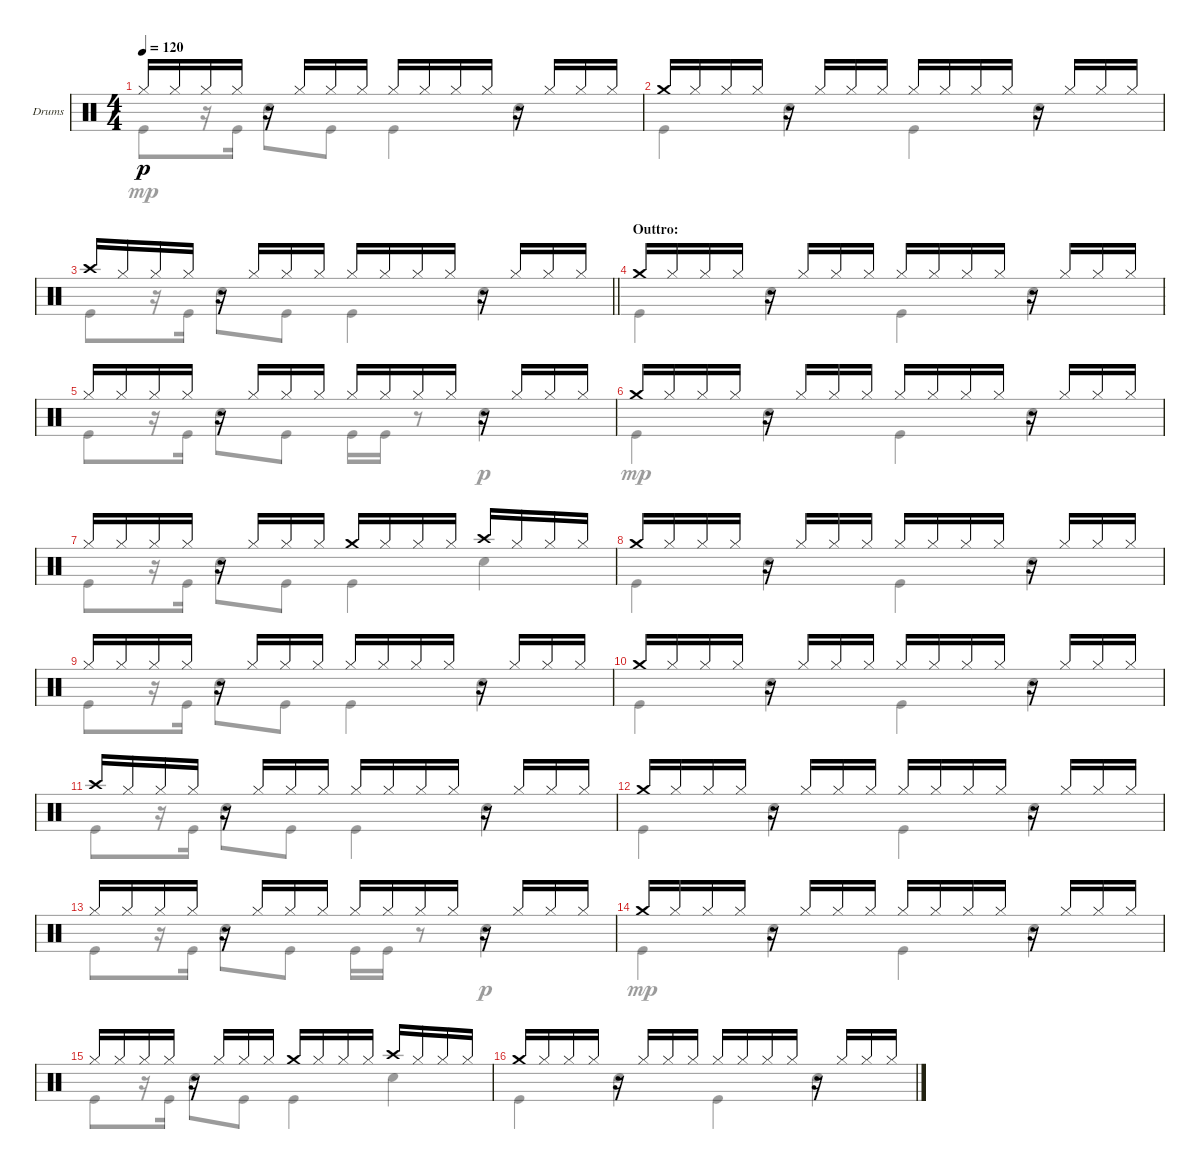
\bracketExtendMode groupsimilarinstruments
\firstSystemTrackNameOrientation horizontal
\otherSystemsTrackNameOrientation horizontal
\track ("Drumkit" "Drums") {instrument percussion}
\staff {score}
\articulation defaults
\voice
\ts (4 4)
\tempo 120
\clef neutral
\ks c "Hi-Hat (closed)".16{dy p} "Hi-Hat (closed)".16 "Hi-Hat (closed)".16 "Hi-Hat (closed)".16
r.16 "Hi-Hat (closed)".16 "Hi-Hat (closed)".16 "Hi-Hat (closed)".16 "Hi-Hat (closed)".16 "Hi-Hat (closed)".16 "Hi-Hat (closed)".16 "Hi-Hat (closed)".16 r.16 "Hi-Hat (closed)".16 "Hi-Hat (closed)".16 "Hi-Hat (closed)".16 |
"Crash medium (hit)".16 "Hi-Hat (closed)".16 "Hi-Hat (closed)".16 "Hi-Hat (closed)".16 r.16 "Hi-Hat (closed)".16 "Hi-Hat (closed)".16 "Hi-Hat (closed)".16 "Hi-Hat (closed)".16 "Hi-Hat (closed)".16 "Hi-Hat (closed)".16 "Hi-Hat (closed)".16 r.16 "Hi-Hat (closed)".16 "Hi-Hat (closed)".16 "Hi-Hat (closed)".16 |
\barLineRight lightlight "Crash high (hit)".16 "Hi-Hat (closed)".16 "Hi-Hat (closed)".16 "Hi-Hat (closed)".16
r.16 "Hi-Hat (closed)".16 "Hi-Hat (closed)".16 "Hi-Hat (closed)".16 "Hi-Hat (closed)".16 "Hi-Hat (closed)".16 "Hi-Hat (closed)".16 "Hi-Hat (closed)".16 r.16 "Hi-Hat (closed)".16 "Hi-Hat (closed)".16 "Hi-Hat (closed)".16 |
\section ("" "Outtro:")
"Crash medium (hit)".16 "Hi-Hat (closed)".16 "Hi-Hat (closed)".16 "Hi-Hat (closed)".16 r.16 "Hi-Hat (closed)".16 "Hi-Hat (closed)".16 "Hi-Hat (closed)".16 "Hi-Hat (closed)".16 "Hi-Hat (closed)".16 "Hi-Hat (closed)".16 "Hi-Hat (closed)".16 r.16 "Hi-Hat (closed)".16 "Hi-Hat (closed)".16 "Hi-Hat (closed)".16 |
"Hi-Hat (closed)".16 "Hi-Hat (closed)".16 "Hi-Hat (closed)".16 "Hi-Hat (closed)".16 r.16 "Hi-Hat (closed)".16 "Hi-Hat (closed)".16 "Hi-Hat (closed)".16 "Hi-Hat (closed)".16 "Hi-Hat (closed)".16 "Hi-Hat (closed)".16 "Hi-Hat (closed)".16 r.16 "Hi-Hat (closed)".16 "Hi-Hat (closed)".16 "Hi-Hat (closed)".16 |
"Crash medium (hit)".16 "Hi-Hat (closed)".16 "Hi-Hat (closed)".16 "Hi-Hat (closed)".16 r.16 "Hi-Hat (closed)".16 "Hi-Hat (closed)".16 "Hi-Hat (closed)".16 "Hi-Hat (closed)".16 "Hi-Hat (closed)".16 "Hi-Hat (closed)".16 "Hi-Hat (closed)".16 r.16 "Hi-Hat (closed)".16 "Hi-Hat (closed)".16 "Hi-Hat (closed)".16 |
"Hi-Hat (closed)".16 "Hi-Hat (closed)".16 "Hi-Hat (closed)".16 "Hi-Hat (closed)".16 r.16 "Hi-Hat (closed)".16 "Hi-Hat (closed)".16 "Hi-Hat (closed)".16 "Crash medium (hit)".16 "Hi-Hat (closed)".16 "Hi-Hat (closed)".16 "Hi-Hat (closed)".16 "Crash high (hit)".16 "Hi-Hat (closed)".16 "Hi-Hat (closed)".16 "Hi-Hat (closed)".16 |
"Crash medium (hit)".16 "Hi-Hat (closed)".16 "Hi-Hat (closed)".16 "Hi-Hat (closed)".16 r.16 "Hi-Hat (closed)".16 "Hi-Hat (closed)".16 "Hi-Hat (closed)".16 "Hi-Hat (closed)".16 "Hi-Hat (closed)".16 "Hi-Hat (closed)".16 "Hi-Hat (closed)".16 r.16 "Hi-Hat (closed)".16 "Hi-Hat (closed)".16 "Hi-Hat (closed)".16 |
"Hi-Hat (closed)".16 "Hi-Hat (closed)".16 "Hi-Hat (closed)".16 "Hi-Hat (closed)".16 r.16 "Hi-Hat (closed)".16 "Hi-Hat (closed)".16 "Hi-Hat (closed)".16 "Hi-Hat (closed)".16 "Hi-Hat (closed)".16 "Hi-Hat (closed)".16 "Hi-Hat (closed)".16 r.16 "Hi-Hat (closed)".16 "Hi-Hat (closed)".16 "Hi-Hat (closed)".16 |
"Crash medium (hit)".16 "Hi-Hat (closed)".16 "Hi-Hat (closed)".16 "Hi-Hat (closed)".16 r.16 "Hi-Hat (closed)".16 "Hi-Hat (closed)".16 "Hi-Hat (closed)".16 "Hi-Hat (closed)".16 "Hi-Hat (closed)".16 "Hi-Hat (closed)".16 "Hi-Hat (closed)".16 r.16 "Hi-Hat (closed)".16 "Hi-Hat (closed)".16 "Hi-Hat (closed)".16 |
"Crash high (hit)".16 "Hi-Hat (closed)".16 "Hi-Hat (closed)".16 "Hi-Hat (closed)".16 r.16 "Hi-Hat (closed)".16 "Hi-Hat (closed)".16 "Hi-Hat (closed)".16 "Hi-Hat (closed)".16 "Hi-Hat (closed)".16 "Hi-Hat (closed)".16 "Hi-Hat (closed)".16 r.16 "Hi-Hat (closed)".16 "Hi-Hat (closed)".16 "Hi-Hat (closed)".16 |
"Crash medium (hit)".16 "Hi-Hat (closed)".16 "Hi-Hat (closed)".16 "Hi-Hat (closed)".16 r.16 "Hi-Hat (closed)".16 "Hi-Hat (closed)".16 "Hi-Hat (closed)".16 "Hi-Hat (closed)".16 "Hi-Hat (closed)".16 "Hi-Hat (closed)".16 "Hi-Hat (closed)".16 r.16 "Hi-Hat (closed)".16 "Hi-Hat (closed)".16 "Hi-Hat (closed)".16 |
"Hi-Hat (closed)".16 "Hi-Hat (closed)".16 "Hi-Hat (closed)".16 "Hi-Hat (closed)".16 r.16 "Hi-Hat (closed)".16 "Hi-Hat (closed)".16 "Hi-Hat (closed)".16 "Hi-Hat (closed)".16 "Hi-Hat (closed)".16 "Hi-Hat (closed)".16 "Hi-Hat (closed)".16 r.16 "Hi-Hat (closed)".16 "Hi-Hat (closed)".16 "Hi-Hat (closed)".16 |
"Crash medium (hit)".16 "Hi-Hat (closed)".16 "Hi-Hat (closed)".16 "Hi-Hat (closed)".16 r.16 "Hi-Hat (closed)".16 "Hi-Hat (closed)".16 "Hi-Hat (closed)".16 "Hi-Hat (closed)".16 "Hi-Hat (closed)".16 "Hi-Hat (closed)".16 "Hi-Hat (closed)".16 r.16 "Hi-Hat (closed)".16 "Hi-Hat (closed)".16 "Hi-Hat (closed)".16 |
"Hi-Hat (closed)".16 "Hi-Hat (closed)".16 "Hi-Hat (closed)".16 "Hi-Hat (closed)".16 r.16 "Hi-Hat (closed)".16 "Hi-Hat (closed)".16 "Hi-Hat (closed)".16 "Crash medium (hit)".16 "Hi-Hat (closed)".16 "Hi-Hat (closed)".16 "Hi-Hat (closed)".16 "Crash high (hit)".16 "Hi-Hat (closed)".16 "Hi-Hat (closed)".16 "Hi-Hat (closed)".16 |
"Crash medium (hit)".16 "Hi-Hat (closed)".16 "Hi-Hat (closed)".16 "Hi-Hat (closed)".16 r.16 "Hi-Hat (closed)".16 "Hi-Hat (closed)".16 "Hi-Hat (closed)".16 "Hi-Hat (closed)".16 "Hi-Hat (closed)".16 "Hi-Hat (closed)".16 "Hi-Hat (closed)".16 r.16 "Hi-Hat (closed)".16 "Hi-Hat (closed)".16 "Hi-Hat (closed)".16
\voice
\clef neutral
\ottava regular
\simile none
\ks c "Kick (hit)".8{dy mp}
r.16 "Kick (hit)".16 "Snare (hit) 2".8 "Kick (hit)".8 "Kick (hit)".4 "Snare (hit) 2".4 |
"Kick (hit)".4 "Snare (hit) 2".4 "Kick (hit)".4 "Snare (hit) 2".4 |
\barLineRight lightlight "Kick (hit)".8
r.16 "Kick (hit)".16 "Snare (hit) 2".8 "Kick (hit)".8 "Kick (hit)".4 "Snare (hit) 2".4 |
"Kick (hit)".4 "Snare (hit) 2".4 "Kick (hit)".4 "Snare (hit) 2".4 |
"Kick (hit)".8 r.16 "Kick (hit)".16 "Snare (hit) 2".8 "Kick (hit)".8 "Kick (hit)".16 "Kick (hit)".16 r.8 "Snare (hit) 2".4{dy p} |
"Kick (hit)".4{dy mp} "Snare (hit) 2".4 "Kick (hit)".4 "Snare (hit) 2".4 |
"Kick (hit)".8 r.16 "Kick (hit)".16 "Snare (hit) 2".8 "Kick (hit)".8 "Kick (hit)".4 "Snare (hit) 2".4 |
"Kick (hit)".4 "Snare (hit) 2".4 "Kick (hit)".4 "Snare (hit) 2".4 |
"Kick (hit)".8 r.16 "Kick (hit)".16 "Snare (hit) 2".8 "Kick (hit)".8 "Kick (hit)".4 "Snare (hit) 2".4 |
"Kick (hit)".4 "Snare (hit) 2".4 "Kick (hit)".4 "Snare (hit) 2".4 |
"Kick (hit)".8 r.16 "Kick (hit)".16 "Snare (hit) 2".8 "Kick (hit)".8 "Kick (hit)".4 "Snare (hit) 2".4 |
"Kick (hit)".4 "Snare (hit) 2".4 "Kick (hit)".4 "Snare (hit) 2".4 |
"Kick (hit)".8 r.16 "Kick (hit)".16 "Snare (hit) 2".8 "Kick (hit)".8 "Kick (hit)".16 "Kick (hit)".16 r.8 "Snare (hit) 2".4{dy p} |
"Kick (hit)".4{dy mp} "Snare (hit) 2".4 "Kick (hit)".4 "Snare (hit) 2".4 |
"Kick (hit)".8 r.16 "Kick (hit)".16 "Snare (hit) 2".8 "Kick (hit)".8 "Kick (hit)".4 "Snare (hit) 2".4 |
"Kick (hit)".4 "Snare (hit) 2".4 "Kick (hit)".4 "Snare (hit) 2".4
